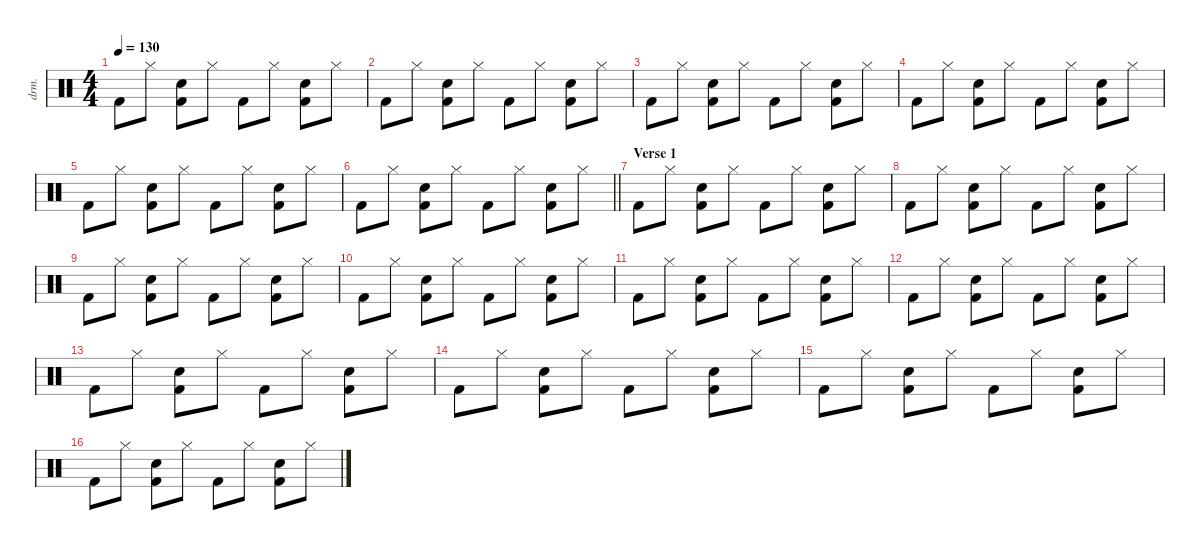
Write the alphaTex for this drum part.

\defaultSystemsLayout 4
\hideDynamics
\bracketExtendMode nobrackets
\otherSystemsTrackNameOrientation horizontal
\track ("Percussion" "drm.") {defaultSystemsLayout 4 instrument percussion}
\staff {score}
\articulation defaults
\ts (4 4)
\tempo 130
\clef neutral
\ks c "Kick (hit) 2".8{dy f beam Down} "Hi-Hat (closed)".8{beam Down}
("Snare (hit) 2" "Kick (hit) 2").8{beam Down} "Hi-Hat (closed)".8{beam Down} "Kick (hit) 2".8{beam Down} "Hi-Hat (closed)".8{beam Down} ("Snare (hit) 2" "Kick (hit) 2").8{beam Down} "Hi-Hat (closed)".8{beam Down} |
"Kick (hit) 2".8{beam Down} "Hi-Hat (closed)".8{beam Down} ("Snare (hit) 2" "Kick (hit) 2").8{beam Down} "Hi-Hat (closed)".8{beam Down} "Kick (hit) 2".8{beam Down} "Hi-Hat (closed)".8{beam Down} ("Snare (hit) 2" "Kick (hit) 2").8{beam Down} "Hi-Hat (closed)".8{beam Down} |
"Kick (hit) 2".8{beam Down} "Hi-Hat (closed)".8{beam Down} ("Snare (hit) 2" "Kick (hit) 2").8{beam Down} "Hi-Hat (closed)".8{beam Down} "Kick (hit) 2".8{beam Down} "Hi-Hat (closed)".8{beam Down} ("Snare (hit) 2" "Kick (hit) 2").8{beam Down} "Hi-Hat (closed)".8{beam Down} |
"Kick (hit) 2".8{beam Down} "Hi-Hat (closed)".8{beam Down} ("Snare (hit) 2" "Kick (hit) 2").8{beam Down} "Hi-Hat (closed)".8{beam Down} "Kick (hit) 2".8{beam Down} "Hi-Hat (closed)".8{beam Down} ("Snare (hit) 2" "Kick (hit) 2").8{beam Down} "Hi-Hat (closed)".8{beam Down} |
"Kick (hit) 2".8{beam Down} "Hi-Hat (closed)".8{beam Down} ("Snare (hit) 2" "Kick (hit) 2").8{beam Down} "Hi-Hat (closed)".8{beam Down} "Kick (hit) 2".8{beam Down} "Hi-Hat (closed)".8{beam Down} ("Snare (hit) 2" "Kick (hit) 2").8{beam Down} "Hi-Hat (closed)".8{beam Down} |
\barLineRight lightlight "Kick (hit) 2".8{beam Down} "Hi-Hat (closed)".8{beam Down}
("Snare (hit) 2" "Kick (hit) 2").8{beam Down} "Hi-Hat (closed)".8{beam Down} "Kick (hit) 2".8{beam Down} "Hi-Hat (closed)".8{beam Down} ("Snare (hit) 2" "Kick (hit) 2").8{beam Down} "Hi-Hat (closed)".8{beam Down} |
\section ("" "Verse 1")
"Kick (hit) 2".8{beam Down} "Hi-Hat (closed)".8{beam Down} ("Snare (hit) 2" "Kick (hit) 2").8{beam Down} "Hi-Hat (closed)".8{beam Down} "Kick (hit) 2".8{beam Down} "Hi-Hat (closed)".8{beam Down} ("Snare (hit) 2" "Kick (hit) 2").8{beam Down} "Hi-Hat (closed)".8{beam Down} |
"Kick (hit) 2".8{beam Down} "Hi-Hat (closed)".8{beam Down} ("Snare (hit) 2" "Kick (hit) 2").8{beam Down} "Hi-Hat (closed)".8{beam Down} "Kick (hit) 2".8{beam Down} "Hi-Hat (closed)".8{beam Down} ("Snare (hit) 2" "Kick (hit) 2").8{beam Down} "Hi-Hat (closed)".8{beam Down} |
"Kick (hit) 2".8{beam Down} "Hi-Hat (closed)".8{beam Down} ("Snare (hit) 2" "Kick (hit) 2").8{beam Down} "Hi-Hat (closed)".8{beam Down} "Kick (hit) 2".8{beam Down} "Hi-Hat (closed)".8{beam Down} ("Snare (hit) 2" "Kick (hit) 2").8{beam Down} "Hi-Hat (closed)".8{beam Down} |
"Kick (hit) 2".8{beam Down} "Hi-Hat (closed)".8{beam Down} ("Snare (hit) 2" "Kick (hit) 2").8{beam Down} "Hi-Hat (closed)".8{beam Down} "Kick (hit) 2".8{beam Down} "Hi-Hat (closed)".8{beam Down} ("Snare (hit) 2" "Kick (hit) 2").8{beam Down} "Hi-Hat (closed)".8{beam Down} |
"Kick (hit) 2".8{beam Down} "Hi-Hat (closed)".8{beam Down} ("Snare (hit) 2" "Kick (hit) 2").8{beam Down} "Hi-Hat (closed)".8{beam Down} "Kick (hit) 2".8{beam Down} "Hi-Hat (closed)".8{beam Down} ("Snare (hit) 2" "Kick (hit) 2").8{beam Down} "Hi-Hat (closed)".8{beam Down} |
"Kick (hit) 2".8{beam Down} "Hi-Hat (closed)".8{beam Down} ("Snare (hit) 2" "Kick (hit) 2").8{beam Down} "Hi-Hat (closed)".8{beam Down} "Kick (hit) 2".8{beam Down} "Hi-Hat (closed)".8{beam Down} ("Snare (hit) 2" "Kick (hit) 2").8{beam Down} "Hi-Hat (closed)".8{beam Down} |
"Kick (hit) 2".8{beam Down} "Hi-Hat (closed)".8{beam Down} ("Snare (hit) 2" "Kick (hit) 2").8{beam Down} "Hi-Hat (closed)".8{beam Down} "Kick (hit) 2".8{beam Down} "Hi-Hat (closed)".8{beam Down} ("Snare (hit) 2" "Kick (hit) 2").8{beam Down} "Hi-Hat (closed)".8{beam Down} |
"Kick (hit) 2".8{beam Down} "Hi-Hat (closed)".8{beam Down} ("Snare (hit) 2" "Kick (hit) 2").8{beam Down} "Hi-Hat (closed)".8{beam Down} "Kick (hit) 2".8{beam Down} "Hi-Hat (closed)".8{beam Down} ("Snare (hit) 2" "Kick (hit) 2").8{beam Down} "Hi-Hat (closed)".8{beam Down} |
"Kick (hit) 2".8{beam Down} "Hi-Hat (closed)".8{beam Down} ("Snare (hit) 2" "Kick (hit) 2").8{beam Down} "Hi-Hat (closed)".8{beam Down} "Kick (hit) 2".8{beam Down} "Hi-Hat (closed)".8{beam Down} ("Snare (hit) 2" "Kick (hit) 2").8{beam Down} "Hi-Hat (closed)".8{beam Down} |
"Kick (hit) 2".8{beam Down} "Hi-Hat (closed)".8{beam Down} ("Snare (hit) 2" "Kick (hit) 2").8{beam Down} "Hi-Hat (closed)".8{beam Down} "Kick (hit) 2".8{beam Down} "Hi-Hat (closed)".8{beam Down} ("Snare (hit) 2" "Kick (hit) 2").8{beam Down} "Hi-Hat (closed)".8{beam Down}
